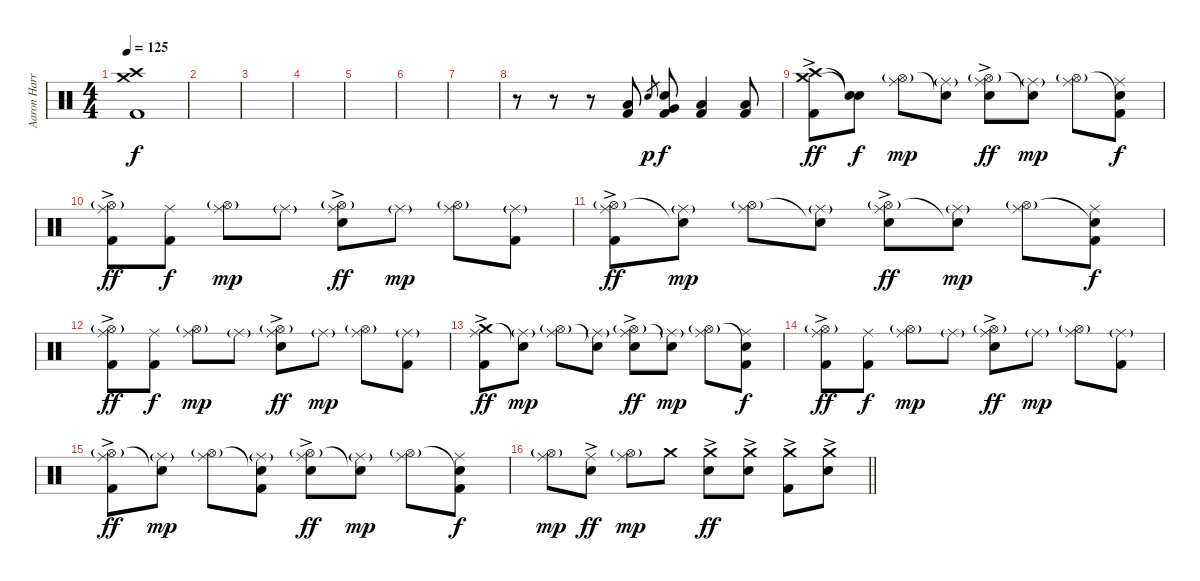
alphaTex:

\track ("Aaron Harris" "Aaron Harr") {instrument percussion}
\staff {score}
\articulation defaults
\ts (4 4)
\tempo 125
\clef neutral
\ks c
("Crash high (hit)" "Crash medium (hit)" "Kick (hit) 2").1{dy f} |
|
|
|
|
|
|
r.8 r.8 r.8 ("Low Floor Tom (hit)" "Kick (hit) 2").8 "Electric Snare (hit)".8{gr dy p} ("Very Low Tom (hit)" "Electric Snare (hit)" "Kick (hit) 2").8{dy f} ("Low Floor Tom (hit)" "Kick (hit) 2").4 ("Low Floor Tom (hit)" "Kick (hit) 2").8 |
("Crash medium (hit)" "Crash high (hit)" "Kick (hit) 2"{ac}).8{dy ff} ("Snare (hit)"{t} "Snare (hit)"{t}).8{dy f} ("Hi-Hat (open)"{g} "Ride (middle)").8{dy mp} ("Snare (hit)"{t} "Ride (middle)"{g}).8 ("Hi-Hat (open)"{g} "Ride (middle)" "Snare (hit) 2"{ac}).8{dy ff} ("Snare (hit)"{t} "Ride (middle)"{g}).8{dy mp} ("Hi-Hat (open)"{g} "Ride (middle)").8 ("Snare (hit)"{t} "Ride (middle)" "Kick (hit) 2").8{dy f} |
("Hi-Hat (open)"{g} "Ride (middle)" "Kick (hit) 2"{ac}).8{dy ff} ("Ride (middle)" "Kick (hit) 2").8{dy f} ("Hi-Hat (open)"{g} "Ride (middle)").8{dy mp} "Ride (middle)"{g}.8 ("Hi-Hat (open)"{g} "Ride (middle)" "Snare (hit) 2"{ac}).8{dy ff} "Ride (middle)"{g}.8{dy mp} ("Hi-Hat (open)"{g} "Ride (middle)").8 ("Ride (middle)"{g} "Kick (hit) 2").8 |
("Hi-Hat (open)"{g} "Ride (middle)" "Kick (hit) 2"{ac}).8{dy ff} ("Snare (hit)"{t} "Ride (middle)"{g}).8{dy mp} ("Hi-Hat (open)"{g} "Ride (middle)").8 ("Snare (hit)"{t} "Ride (middle)"{g}).8 ("Hi-Hat (open)"{g} "Ride (middle)" "Snare (hit) 2"{ac}).8{dy ff} ("Snare (hit)"{t} "Ride (middle)"{g}).8{dy mp} ("Hi-Hat (open)"{g} "Ride (middle)").8 ("Snare (hit)"{t} "Ride (middle)" "Kick (hit) 2").8{dy f} |
("Hi-Hat (open)"{g} "Ride (middle)" "Kick (hit) 2"{ac}).8{dy ff} ("Ride (middle)" "Kick (hit) 2").8{dy f} ("Hi-Hat (open)"{g} "Ride (middle)").8{dy mp} "Ride (middle)"{g}.8 ("Hi-Hat (open)"{g} "Ride (middle)" "Snare (hit) 2"{ac}).8{dy ff} "Ride (middle)"{g}.8{dy mp} ("Hi-Hat (open)"{g} "Ride (middle)").8 ("Ride (middle)"{g} "Kick (hit) 2").8 |
("Crash medium (hit)" "Ride (middle)" "Kick (hit) 2"{ac}).8{dy ff} ("Snare (hit)"{t} "Ride (middle)"{g}).8{dy mp} ("Hi-Hat (open)"{g} "Ride (middle)").8 ("Snare (hit)"{t} "Ride (middle)"{g}).8 ("Hi-Hat (open)"{g} "Ride (middle)" "Snare (hit) 2"{ac}).8{dy ff} ("Snare (hit)"{t} "Ride (middle)"{g}).8{dy mp} ("Hi-Hat (open)"{g} "Ride (middle)").8 ("Snare (hit)"{t} "Ride (middle)" "Kick (hit) 2").8{dy f} |
("Hi-Hat (open)"{g} "Ride (middle)" "Kick (hit) 2"{ac}).8{dy ff} ("Ride (middle)" "Kick (hit) 2").8{dy f} ("Hi-Hat (open)"{g} "Ride (middle)").8{dy mp} "Ride (middle)"{g}.8 ("Hi-Hat (open)"{g} "Ride (middle)" "Snare (hit) 2"{ac}).8{dy ff} "Ride (middle)"{g}.8{dy mp} ("Hi-Hat (open)"{g} "Ride (middle)").8 ("Ride (middle)"{g} "Kick (hit) 2").8 |
("Hi-Hat (open)"{g} "Ride (middle)" "Kick (hit) 2"{ac}).8{dy ff} ("Snare (hit)"{t} "Ride (middle)"{g}).8{dy mp} ("Hi-Hat (open)"{g} "Ride (middle)").8 ("Snare (hit)"{t} "Ride (middle)"{g} "Kick (hit) 2").8 ("Hi-Hat (open)"{g} "Ride (middle)" "Snare (hit) 2"{ac}).8{dy ff} ("Snare (hit)"{t} "Ride (middle)"{g}).8{dy mp} ("Hi-Hat (open)"{g} "Ride (middle)").8 ("Snare (hit)"{t} "Ride (middle)" "Kick (hit) 2").8{dy f} |
\barLineRight lightlight
("Hi-Hat (open)"{g} "Ride (middle)").8{dy mp} ("Ride (middle)" "Snare (hit) 2"{ac}).8{dy ff} ("Hi-Hat (open)"{g} "Ride (middle)").8{dy mp} "Crash medium (hit)".8 ("Crash medium (hit)" "Snare (hit) 2"{ac}).8{dy ff} ("Crash medium (hit)" "Snare (hit) 2"{ac}).8 ("Crash medium (hit)" "Kick (hit) 2"{ac}).8 ("Crash medium (hit)" "Snare (hit) 2"{ac}).8
